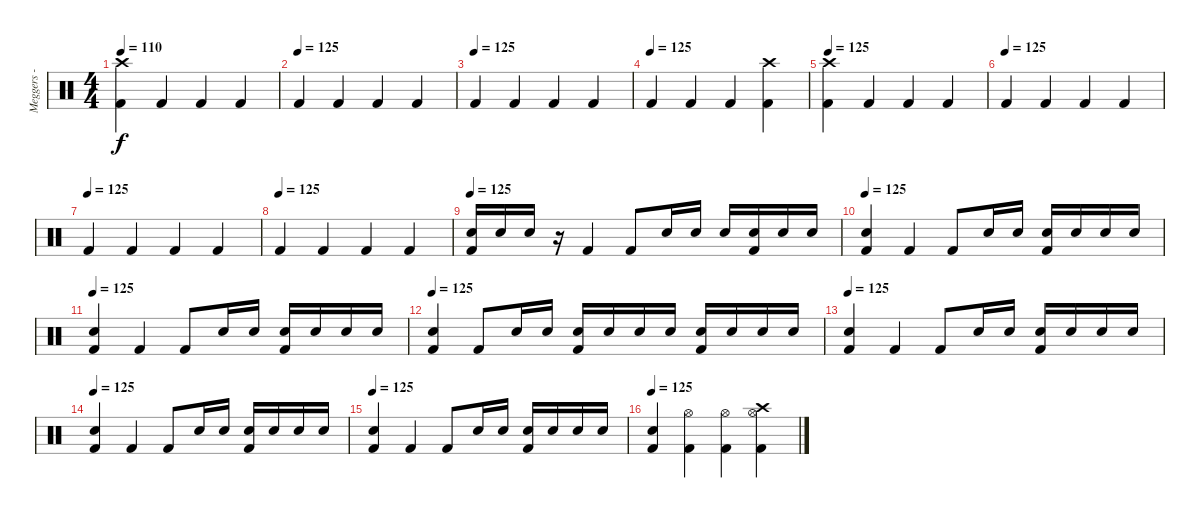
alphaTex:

\track ("Meggers - Drums" "Meggers - ") {instrument percussion}
\staff {score}
\articulation defaults
\ts (4 4)
\tempo 110
\tempo 125
\tempo 110
\clef neutral
\ks c
("Crash high (hit)" "Kick (hit) 2").4{dy f} "Kick (hit) 2".4 "Kick (hit) 2".4 "Kick (hit) 2".4 |
\tempo (125)
"Kick (hit) 2".4 "Kick (hit) 2".4 "Kick (hit) 2".4 "Kick (hit) 2".4 |
\tempo (125)
"Kick (hit) 2".4 "Kick (hit) 2".4 "Kick (hit) 2".4 "Kick (hit) 2".4 |
\tempo (125)
"Kick (hit) 2".4 "Kick (hit) 2".4 "Kick (hit) 2".4 ("Crash high (hit)" "Kick (hit) 2").4 |
\tempo 125
("Crash high (hit)" "Kick (hit) 2").4 "Kick (hit) 2".4 "Kick (hit) 2".4 "Kick (hit) 2".4 |
\tempo (125)
"Kick (hit) 2".4 "Kick (hit) 2".4 "Kick (hit) 2".4 "Kick (hit) 2".4 |
\tempo (125)
"Kick (hit) 2".4 "Kick (hit) 2".4 "Kick (hit) 2".4 "Kick (hit) 2".4 |
\tempo (125)
"Kick (hit) 2".4 "Kick (hit) 2".4 "Kick (hit) 2".4 "Kick (hit) 2".4 |
\tempo 125
("Electric Snare (hit)" "Kick (hit) 2").16 "Electric Snare (hit)".16 "Electric Snare (hit)".16 r.16 "Kick (hit) 2".4 "Kick (hit) 2".8 "Electric Snare (hit)".16 "Electric Snare (hit)".16 "Electric Snare (hit)".16 ("Electric Snare (hit)" "Kick (hit) 2").16 "Electric Snare (hit)".16 "Electric Snare (hit)".16 |
\tempo 125
("Electric Snare (hit)" "Kick (hit) 2").4 "Kick (hit) 2".4 "Kick (hit) 2".8 "Electric Snare (hit)".16 "Electric Snare (hit)".16 ("Electric Snare (hit)" "Kick (hit) 2").16 "Electric Snare (hit)".16 "Electric Snare (hit)".16 "Electric Snare (hit)".16 |
\tempo 125
("Electric Snare (hit)" "Kick (hit) 2").4 "Kick (hit) 2".4 "Kick (hit) 2".8 "Electric Snare (hit)".16 "Electric Snare (hit)".16 ("Electric Snare (hit)" "Kick (hit) 2").16 "Electric Snare (hit)".16 "Electric Snare (hit)".16 "Electric Snare (hit)".16 |
\tempo 125
("Electric Snare (hit)" "Kick (hit) 2").4 "Kick (hit) 2".8 "Electric Snare (hit)".16 "Electric Snare (hit)".16 ("Electric Snare (hit)" "Kick (hit) 2").16 "Electric Snare (hit)".16 "Electric Snare (hit)".16 "Electric Snare (hit)".16 ("Electric Snare (hit)" "Kick (hit) 2").16 "Electric Snare (hit)".16 "Electric Snare (hit)".16 "Electric Snare (hit)".16 |
\tempo 125
("Electric Snare (hit)" "Kick (hit) 2").4 "Kick (hit) 2".4 "Kick (hit) 2".8 "Electric Snare (hit)".16 "Electric Snare (hit)".16 ("Electric Snare (hit)" "Kick (hit) 2").16 "Electric Snare (hit)".16 "Electric Snare (hit)".16 "Electric Snare (hit)".16 |
\tempo 125
("Electric Snare (hit)" "Kick (hit) 2").4 "Kick (hit) 2".4 "Kick (hit) 2".8 "Electric Snare (hit)".16 "Electric Snare (hit)".16 ("Electric Snare (hit)" "Kick (hit) 2").16 "Electric Snare (hit)".16 "Electric Snare (hit)".16 "Electric Snare (hit)".16 |
\tempo 125
("Electric Snare (hit)" "Kick (hit) 2").4 "Kick (hit) 2".4 "Kick (hit) 2".8 "Electric Snare (hit)".16 "Electric Snare (hit)".16 ("Electric Snare (hit)" "Kick (hit) 2").16 "Electric Snare (hit)".16 "Electric Snare (hit)".16 "Electric Snare (hit)".16 |
\tempo 125
("Electric Snare (hit)" "Kick (hit) 2").4 ("Hi-Hat (open)" "Kick (hit) 2").4 ("Hi-Hat (open)" "Kick (hit) 2").4 ("Crash high (hit)" "Hi-Hat (open)" "Kick (hit) 2").4
